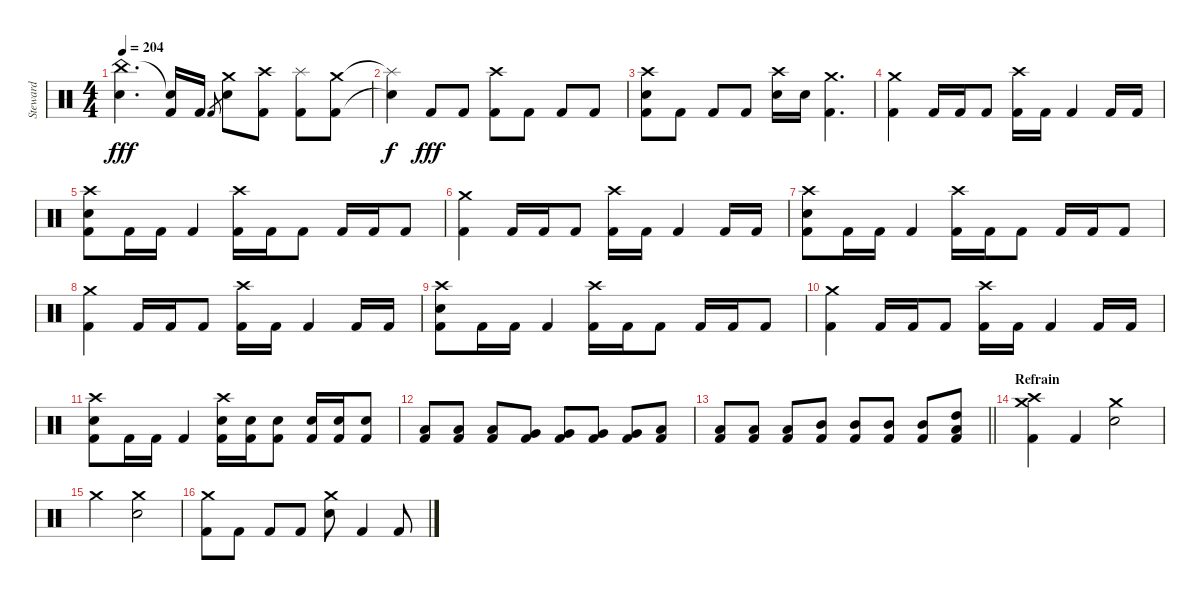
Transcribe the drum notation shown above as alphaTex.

\track ("Steward" "Steward") {instrument percussion}
\staff {score}
\articulation defaults
\ts (4 4)
\tempo 204
\clef neutral
\ks c
("China (hit)" "Electric Snare (hit)").4{d dy fff} ("Snare (hit)"{t} "Kick (hit) 2").16 "Kick (hit) 2".16 "Kick (hit) 2".8{gr} ("Crash medium (hit)" "Electric Snare (hit)").8 ("Crash high (hit)" "Kick (hit) 2").8 ("Splash (hit)" "Kick (hit) 2").8 ("Crash medium (hit)" "Kick (hit) 2").8 |
("Splash (hit)"{t} "Electric Snare (hit)"{t}).4{dy f} "Kick (hit) 2".8{dy fff} "Kick (hit) 2".8 ("Crash high (hit)" "Kick (hit) 2").8 "Kick (hit) 2".8 "Kick (hit) 2".8 "Kick (hit) 2".8 |
("Crash high (hit)" "Electric Snare (hit)" "Kick (hit) 2").8 "Kick (hit) 2".8 "Kick (hit) 2".8 "Kick (hit) 2".8 ("Crash high (hit)" "Electric Snare (hit)").16 "Electric Snare (hit)".16 ("Crash medium (hit)" "Kick (hit) 2").4{d} |
("Crash medium (hit)" "Kick (hit) 2").4 "Kick (hit) 2".16 "Kick (hit) 2".16 "Kick (hit) 2".8 ("Crash high (hit)" "Kick (hit) 2").16 "Kick (hit) 2".16 "Kick (hit) 2".4 "Kick (hit) 2".16 "Kick (hit) 2".16 |
("Crash high (hit)" "Electric Snare (hit)" "Kick (hit) 2").8 "Kick (hit) 2".16 "Kick (hit) 2".16 "Kick (hit) 2".4 ("Crash high (hit)" "Kick (hit) 2").16 "Kick (hit) 2".16 "Kick (hit) 2".8 "Kick (hit) 2".16 "Kick (hit) 2".16 "Kick (hit) 2".8 |
("Crash medium (hit)" "Kick (hit) 2").4 "Kick (hit) 2".16 "Kick (hit) 2".16 "Kick (hit) 2".8 ("Crash high (hit)" "Kick (hit) 2").16 "Kick (hit) 2".16 "Kick (hit) 2".4 "Kick (hit) 2".16 "Kick (hit) 2".16 |
("Crash high (hit)" "Electric Snare (hit)" "Kick (hit) 2").8 "Kick (hit) 2".16 "Kick (hit) 2".16 "Kick (hit) 2".4 ("Crash high (hit)" "Kick (hit) 2").16 "Kick (hit) 2".16 "Kick (hit) 2".8 "Kick (hit) 2".16 "Kick (hit) 2".16 "Kick (hit) 2".8 |
("Crash medium (hit)" "Kick (hit) 2").4 "Kick (hit) 2".16 "Kick (hit) 2".16 "Kick (hit) 2".8 ("Crash high (hit)" "Kick (hit) 2").16 "Kick (hit) 2".16 "Kick (hit) 2".4 "Kick (hit) 2".16 "Kick (hit) 2".16 |
("Crash high (hit)" "Electric Snare (hit)" "Kick (hit) 2").8 "Kick (hit) 2".16 "Kick (hit) 2".16 "Kick (hit) 2".4 ("Crash high (hit)" "Kick (hit) 2").16 "Kick (hit) 2".16 "Kick (hit) 2".8 "Kick (hit) 2".16 "Kick (hit) 2".16 "Kick (hit) 2".8 |
("Crash medium (hit)" "Kick (hit) 2").4 "Kick (hit) 2".16 "Kick (hit) 2".16 "Kick (hit) 2".8 ("Crash high (hit)" "Kick (hit) 2").16 "Kick (hit) 2".16 "Kick (hit) 2".4 "Kick (hit) 2".16 "Kick (hit) 2".16 |
("Crash high (hit)" "Electric Snare (hit)" "Kick (hit) 2").8 "Kick (hit) 2".16 "Kick (hit) 2".16 "Kick (hit) 2".4 ("Crash high (hit)" "Electric Snare (hit)" "Kick (hit) 2").16 ("Electric Snare (hit)" "Kick (hit) 2").16 ("Electric Snare (hit)" "Kick (hit) 2").8 ("Electric Snare (hit)" "Kick (hit) 2").16 ("Electric Snare (hit)" "Kick (hit) 2").16 ("Electric Snare (hit)" "Kick (hit) 2").8 |
("Low Floor Tom (hit)" "Kick (hit) 2").8 ("Low Floor Tom (hit)" "Kick (hit) 2").8 ("Low Floor Tom (hit)" "Kick (hit) 2").8 ("Very Low Tom (hit)" "Kick (hit) 2").8 ("Very Low Tom (hit)" "Kick (hit) 2").8 ("Very Low Tom (hit)" "Kick (hit) 2").8 ("Very Low Tom (hit)" "Kick (hit) 2").8 ("Low Tom (hit)" "Kick (hit) 2").8 |
\barLineRight lightlight
("Low Tom (hit)" "Kick (hit) 2").8 ("Low Tom (hit)" "Kick (hit) 2").8 ("Low Tom (hit)" "Kick (hit) 2").8 ("Mid Tom (hit)" "Kick (hit) 2").8 ("Mid Tom (hit)" "Kick (hit) 2").8 ("Mid Tom (hit)" "Kick (hit) 2").8 ("Mid Tom (hit)" "Kick (hit) 2").8 ("High Tom (hit)" "Low Floor Tom (hit)" "Kick (hit) 2").8 |
\section ("" "Refrain")
("Crash medium (hit)" "Crash high (hit)" "Kick (hit) 2").4 "Kick (hit) 2".4 ("Crash medium (hit)" "Electric Snare (hit)").2 |
"Crash medium (hit)".2 ("Crash medium (hit)" "Electric Snare (hit)").2 |
("Crash medium (hit)" "Kick (hit) 2").8 "Kick (hit) 2".8 "Kick (hit) 2".8 "Kick (hit) 2".8 ("Crash medium (hit)" "Electric Snare (hit)").8 "Kick (hit) 2".4 "Kick (hit) 2".8
